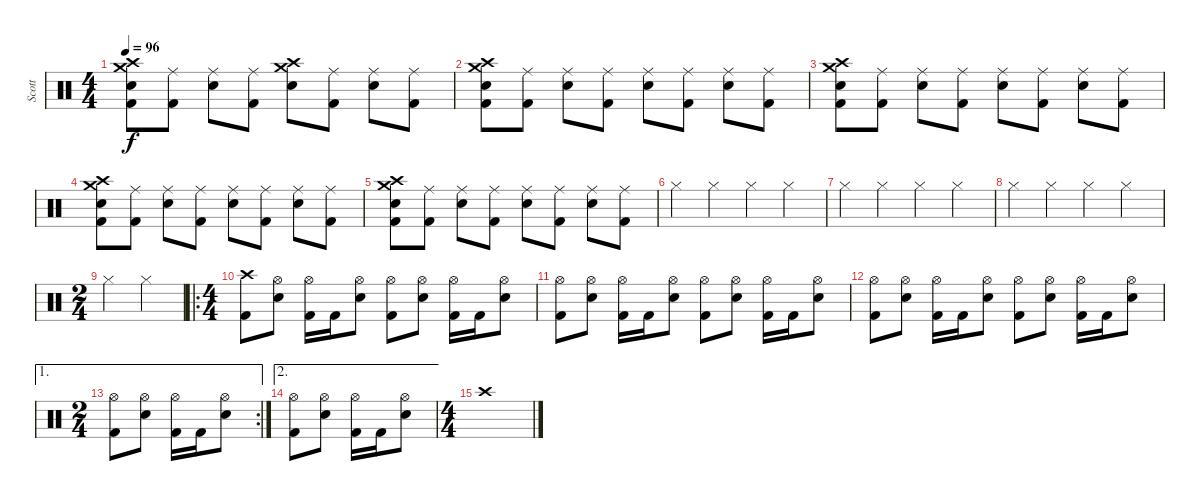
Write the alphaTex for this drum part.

\track ("Scott" "Scott") {instrument percussion}
\staff {score}
\articulation defaults
\ts (4 4)
\tempo 96
\clef neutral
\ks c
("Crash high (hit)" "Crash medium (hit)" "Snare (hit) 2" "Kick (hit) 2").8{dy f} ("Ride (middle)" "Kick (hit) 2").8 ("Ride (middle)" "Snare (hit) 2").8 ("Ride (middle)" "Kick (hit) 2").8 ("Crash high (hit)" "Crash medium (hit)" "Snare (hit) 2").8 ("Ride (middle)" "Kick (hit) 2").8 ("Ride (middle)" "Snare (hit) 2").8 ("Ride (middle)" "Kick (hit) 2").8 |
("Crash high (hit)" "Crash medium (hit)" "Snare (hit) 2" "Kick (hit) 2").8 ("Ride (middle)" "Kick (hit) 2").8 ("Ride (middle)" "Snare (hit) 2").8 ("Ride (middle)" "Kick (hit) 2").8 ("Ride (middle)" "Snare (hit) 2").8 ("Ride (middle)" "Kick (hit) 2").8 ("Ride (middle)" "Snare (hit) 2").8 ("Ride (middle)" "Kick (hit) 2").8 |
("Crash high (hit)" "Crash medium (hit)" "Snare (hit) 2" "Kick (hit) 2").8 ("Ride (middle)" "Kick (hit) 2").8 ("Ride (middle)" "Snare (hit) 2").8 ("Ride (middle)" "Kick (hit) 2").8 ("Ride (middle)" "Snare (hit) 2").8 ("Ride (middle)" "Kick (hit) 2").8 ("Ride (middle)" "Snare (hit) 2").8 ("Ride (middle)" "Kick (hit) 2").8 |
("Crash high (hit)" "Crash medium (hit)" "Snare (hit) 2" "Kick (hit) 2").8 ("Ride (middle)" "Kick (hit) 2").8 ("Ride (middle)" "Snare (hit) 2").8 ("Ride (middle)" "Kick (hit) 2").8 ("Ride (middle)" "Snare (hit) 2").8 ("Ride (middle)" "Kick (hit) 2").8 ("Ride (middle)" "Snare (hit) 2").8 ("Ride (middle)" "Kick (hit) 2").8 |
("Crash high (hit)" "Crash medium (hit)" "Snare (hit) 2" "Kick (hit) 2").8 ("Ride (middle)" "Kick (hit) 2").8 ("Ride (middle)" "Snare (hit) 2").8 ("Ride (middle)" "Kick (hit) 2").8 ("Ride (middle)" "Snare (hit) 2").8 ("Ride (middle)" "Kick (hit) 2").8 ("Ride (middle)" "Snare (hit) 2").8 ("Ride (middle)" "Kick (hit) 2").8 |
"Hi-Hat (closed)".4 "Hi-Hat (closed)".4 "Hi-Hat (closed)".4 "Hi-Hat (closed)".4 |
"Hi-Hat (closed)".4 "Hi-Hat (closed)".4 "Hi-Hat (closed)".4 "Hi-Hat (closed)".4 |
"Hi-Hat (closed)".4 "Hi-Hat (closed)".4 "Hi-Hat (closed)".4 "Hi-Hat (closed)".4 |
\ts (2 4)
"Hi-Hat (closed)".4 "Hi-Hat (closed)".4 |
\ro
\ts (4 4)
("Kick (hit) 2" "Crash high (hit)").8 ("Hi-Hat (open)" "Snare (hit) 2").8 ("Hi-Hat (open)" "Kick (hit) 2").16 "Kick (hit) 2".16 ("Snare (hit) 2" "Hi-Hat (open)").8 ("Kick (hit) 2" "Hi-Hat (open)").8 ("Hi-Hat (open)" "Snare (hit) 2").8 ("Hi-Hat (open)" "Kick (hit) 2").16 "Kick (hit) 2".16 ("Snare (hit) 2" "Hi-Hat (open)").8 |
("Kick (hit) 2" "Hi-Hat (open)").8 ("Hi-Hat (open)" "Snare (hit) 2").8 ("Hi-Hat (open)" "Kick (hit) 2").16 "Kick (hit) 2".16 ("Snare (hit) 2" "Hi-Hat (open)").8 ("Kick (hit) 2" "Hi-Hat (open)").8 ("Hi-Hat (open)" "Snare (hit) 2").8 ("Hi-Hat (open)" "Kick (hit) 2").16 "Kick (hit) 2".16 ("Snare (hit) 2" "Hi-Hat (open)").8 |
("Kick (hit) 2" "Hi-Hat (open)").8 ("Hi-Hat (open)" "Snare (hit) 2").8 ("Hi-Hat (open)" "Kick (hit) 2").16 "Kick (hit) 2".16 ("Snare (hit) 2" "Hi-Hat (open)").8 ("Kick (hit) 2" "Hi-Hat (open)").8 ("Hi-Hat (open)" "Snare (hit) 2").8 ("Hi-Hat (open)" "Kick (hit) 2").16 "Kick (hit) 2".16 ("Snare (hit) 2" "Hi-Hat (open)").8 |
\ae 1
\rc 2
\ts (2 4)
("Kick (hit) 2" "Hi-Hat (open)").8 ("Hi-Hat (open)" "Snare (hit) 2").8 ("Hi-Hat (open)" "Kick (hit) 2").16 "Kick (hit) 2".16 ("Snare (hit) 2" "Hi-Hat (open)").8 |
\ae 2
("Kick (hit) 2" "Hi-Hat (open)").8 ("Hi-Hat (open)" "Snare (hit) 2").8 ("Hi-Hat (open)" "Kick (hit) 2").16 "Kick (hit) 2".16 ("Snare (hit) 2" "Hi-Hat (open)").8 |
\ts (4 4)
"Crash high (hit)".1
